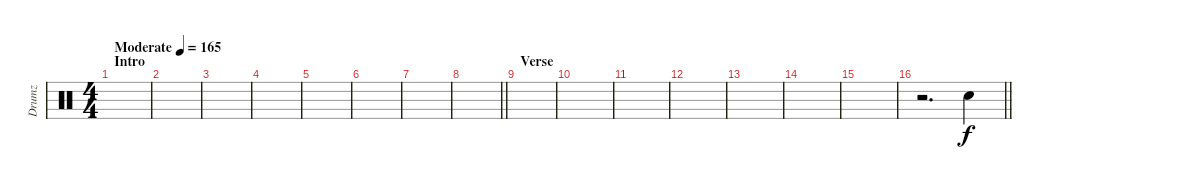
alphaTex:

\track ("Drumz" "Drumz") {instrument percussion}
\staff {score}
\articulation defaults
\ts (4 4)
\section ("" "Intro")
\tempo (165 "Moderate")
\clef neutral
\ks c
|
|
|
|
|
|
|
\barLineRight lightlight
|
\section ("" "Verse")
|
|
|
|
|
|
|
\barLineRight lightlight
r.2{d} "Electric Snare (hit)".4
